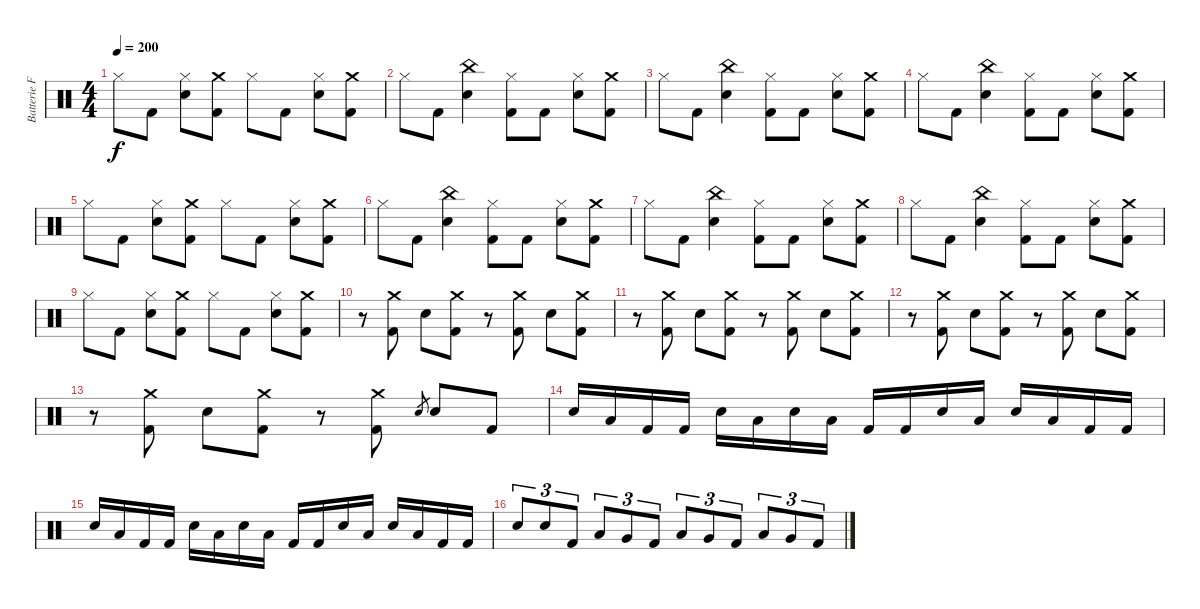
\track ("Batterie Franck" "Batterie F") {instrument percussion}
\staff {score}
\articulation defaults
\ts (4 4)
\tempo 200
\clef neutral
\ks c "Hi-Hat (closed)".8{dy f} "Kick (hit) 2".8
("Hi-Hat (closed)" "Snare (hit) 2").8 ("Crash medium (hit)" "Kick (hit) 2").8 "Hi-Hat (closed)".8 "Kick (hit) 2".8 ("Hi-Hat (closed)" "Snare (hit) 2").8 ("Crash medium (hit)" "Kick (hit) 2").8 |
"Hi-Hat (closed)".8 "Kick (hit) 2".8 ("China (hit)" "Snare (hit) 2").4 ("Hi-Hat (closed)" "Kick (hit) 2").8 "Kick (hit) 2".8 ("Hi-Hat (closed)" "Snare (hit) 2").8 ("Crash medium (hit)" "Kick (hit) 2").8 |
"Hi-Hat (closed)".8 "Kick (hit) 2".8 ("China (hit)" "Snare (hit) 2").4 ("Hi-Hat (closed)" "Kick (hit) 2").8 "Kick (hit) 2".8 ("Hi-Hat (closed)" "Snare (hit) 2").8 ("Crash medium (hit)" "Kick (hit) 2").8 |
"Hi-Hat (closed)".8 "Kick (hit) 2".8 ("China (hit)" "Snare (hit) 2").4 ("Hi-Hat (closed)" "Kick (hit) 2").8 "Kick (hit) 2".8 ("Hi-Hat (closed)" "Snare (hit) 2").8 ("Crash medium (hit)" "Kick (hit) 2").8 |
"Hi-Hat (closed)".8 "Kick (hit) 2".8 ("Hi-Hat (closed)" "Snare (hit) 2").8 ("Crash medium (hit)" "Kick (hit) 2").8 "Hi-Hat (closed)".8 "Kick (hit) 2".8 ("Hi-Hat (closed)" "Snare (hit) 2").8 ("Crash medium (hit)" "Kick (hit) 2").8 |
"Hi-Hat (closed)".8 "Kick (hit) 2".8 ("China (hit)" "Snare (hit) 2").4 ("Hi-Hat (closed)" "Kick (hit) 2").8 "Kick (hit) 2".8 ("Hi-Hat (closed)" "Snare (hit) 2").8 ("Crash medium (hit)" "Kick (hit) 2").8 |
"Hi-Hat (closed)".8 "Kick (hit) 2".8 ("China (hit)" "Snare (hit) 2").4 ("Hi-Hat (closed)" "Kick (hit) 2").8 "Kick (hit) 2".8 ("Hi-Hat (closed)" "Snare (hit) 2").8 ("Crash medium (hit)" "Kick (hit) 2").8 |
"Hi-Hat (closed)".8 "Kick (hit) 2".8 ("China (hit)" "Snare (hit) 2").4 ("Hi-Hat (closed)" "Kick (hit) 2").8 "Kick (hit) 2".8 ("Hi-Hat (closed)" "Snare (hit) 2").8 ("Crash medium (hit)" "Kick (hit) 2").8 |
"Hi-Hat (closed)".8 "Kick (hit) 2".8 ("Hi-Hat (closed)" "Snare (hit) 2").8 ("Crash medium (hit)" "Kick (hit) 2").8 "Hi-Hat (closed)".8 "Kick (hit) 2".8 ("Hi-Hat (closed)" "Snare (hit) 2").8 ("Crash medium (hit)" "Kick (hit) 2").8 |
r.8 ("Crash medium (hit)" "Kick (hit) 2").8 "Snare (hit) 2".8 ("Crash medium (hit)" "Kick (hit) 2").8 r.8 ("Crash medium (hit)" "Kick (hit) 2").8 "Snare (hit) 2".8 ("Crash medium (hit)" "Kick (hit) 2").8 |
r.8 ("Crash medium (hit)" "Kick (hit) 2").8 "Snare (hit) 2".8 ("Crash medium (hit)" "Kick (hit) 2").8 r.8 ("Crash medium (hit)" "Kick (hit) 2").8 "Snare (hit) 2".8 ("Crash medium (hit)" "Kick (hit) 2").8 |
r.8 ("Crash medium (hit)" "Kick (hit) 2").8 "Snare (hit) 2".8 ("Crash medium (hit)" "Kick (hit) 2").8 r.8 ("Crash medium (hit)" "Kick (hit) 2").8 "Snare (hit) 2".8 ("Crash medium (hit)" "Kick (hit) 2").8 |
r.8 ("Crash medium (hit)" "Kick (hit) 2").8 "Snare (hit) 2".8 ("Crash medium (hit)" "Kick (hit) 2").8 r.8 ("Crash medium (hit)" "Kick (hit) 2").8 "Snare (hit) 2".8{gr} "Snare (hit) 2".8 "Kick (hit) 2".8 |
"Snare (hit) 2".16 "Low Tom (hit)".16 "Kick (hit) 2".16 "Kick (hit) 2".16 "Snare (hit) 2".16 "Low Tom (hit)".16 "Snare (hit) 2".16 "Low Tom (hit)".16 "Kick (hit) 2".16 "Kick (hit) 2".16 "Snare (hit) 2".16 "Low Tom (hit)".16 "Snare (hit) 2".16 "Low Tom (hit)".16 "Kick (hit) 2".16 "Kick (hit) 2".16 |
"Snare (hit) 2".16 "Low Tom (hit)".16 "Kick (hit) 2".16 "Kick (hit) 2".16 "Snare (hit) 2".16 "Low Tom (hit)".16 "Snare (hit) 2".16 "Low Tom (hit)".16 "Kick (hit) 2".16 "Kick (hit) 2".16 "Snare (hit) 2".16 "Low Tom (hit)".16 "Snare (hit) 2".16 "Low Tom (hit)".16 "Kick (hit) 2".16 "Kick (hit) 2".16 |
"Snare (hit) 2".8{tu (3 2)} "Snare (hit) 2".8{tu (3 2)} "Kick (hit) 2".8{tu (3 2)} "Low Tom (hit)".8{tu (3 2)} "Very Low Tom (hit)".8{tu (3 2)} "Kick (hit) 2".8{tu (3 2)} "Low Tom (hit)".8{tu (3 2)} "Very Low Tom (hit)".8{tu (3 2)} "Kick (hit) 2".8{tu (3 2)} "Low Tom (hit)".8{tu (3 2)} "Very Low Tom (hit)".8{tu (3 2)} "Kick (hit) 2".8{tu (3 2)}
